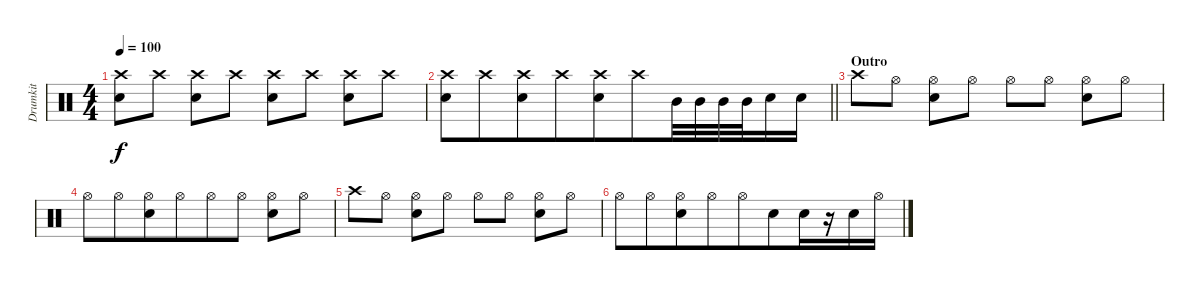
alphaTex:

\track ("Drumkit" "Drumkit") {instrument percussion}
\staff {score}
\articulation defaults
\ts (4 4)
\tempo 100
\clef neutral
\ks c
("Crash high (hit)" "Electric Snare (hit)").8{dy f} "Crash high (hit)".8 ("Crash high (hit)" "Electric Snare (hit)").8{beam merge} "Crash high (hit)".8 ("Crash high (hit)" "Electric Snare (hit)").8 "Crash high (hit)".8 ("Crash high (hit)" "Electric Snare (hit)").8{beam merge} "Crash high (hit)".8 |
\barLineRight lightlight
("Crash high (hit)" "Electric Snare (hit)").8{beam merge} "Crash high (hit)".8{beam merge} ("Crash high (hit)" "Electric Snare (hit)").8{beam merge} "Crash high (hit)".8{beam merge} ("Crash high (hit)" "Electric Snare (hit)").8{beam merge} "Crash high (hit)".8{beam merge} "Mid Tom (hit)".32 "Mid Tom (hit)".32 "Mid Tom (hit)".32 "Mid Tom (hit)".32 "Electric Snare (hit)".16 "Electric Snare (hit)".16 |
\section ("" "Outro")
"Crash high (hit)".8 "Hi-Hat (open)".8 ("Hi-Hat (open)" "Electric Snare (hit)").8{beam merge} "Hi-Hat (open)".8 "Hi-Hat (open)".8 "Hi-Hat (open)".8 ("Hi-Hat (open)" "Electric Snare (hit)").8{beam merge} "Hi-Hat (open)".8 |
"Hi-Hat (open)".8{beam merge} "Hi-Hat (open)".8{beam merge} ("Hi-Hat (open)" "Electric Snare (hit)").8{beam merge} "Hi-Hat (open)".8{beam merge} "Hi-Hat (open)".8 "Hi-Hat (open)".8 ("Hi-Hat (open)" "Electric Snare (hit)").8 "Hi-Hat (open)".8 |
"Crash high (hit)".8 "Hi-Hat (open)".8 ("Hi-Hat (open)" "Electric Snare (hit)").8{beam merge} "Hi-Hat (open)".8 "Hi-Hat (open)".8 "Hi-Hat (open)".8 ("Hi-Hat (open)" "Electric Snare (hit)").8{beam merge} "Hi-Hat (open)".8 |
"Hi-Hat (open)".8{beam merge} "Hi-Hat (open)".8{beam merge} ("Hi-Hat (open)" "Electric Snare (hit)").8{beam merge} "Hi-Hat (open)".8{beam merge} "Hi-Hat (open)".8 "Electric Snare (hit)".8{beam merge} "Electric Snare (hit)".16{beam merge} r.16 "Electric Snare (hit)".16{beam merge} "Hi-Hat (open)".16
